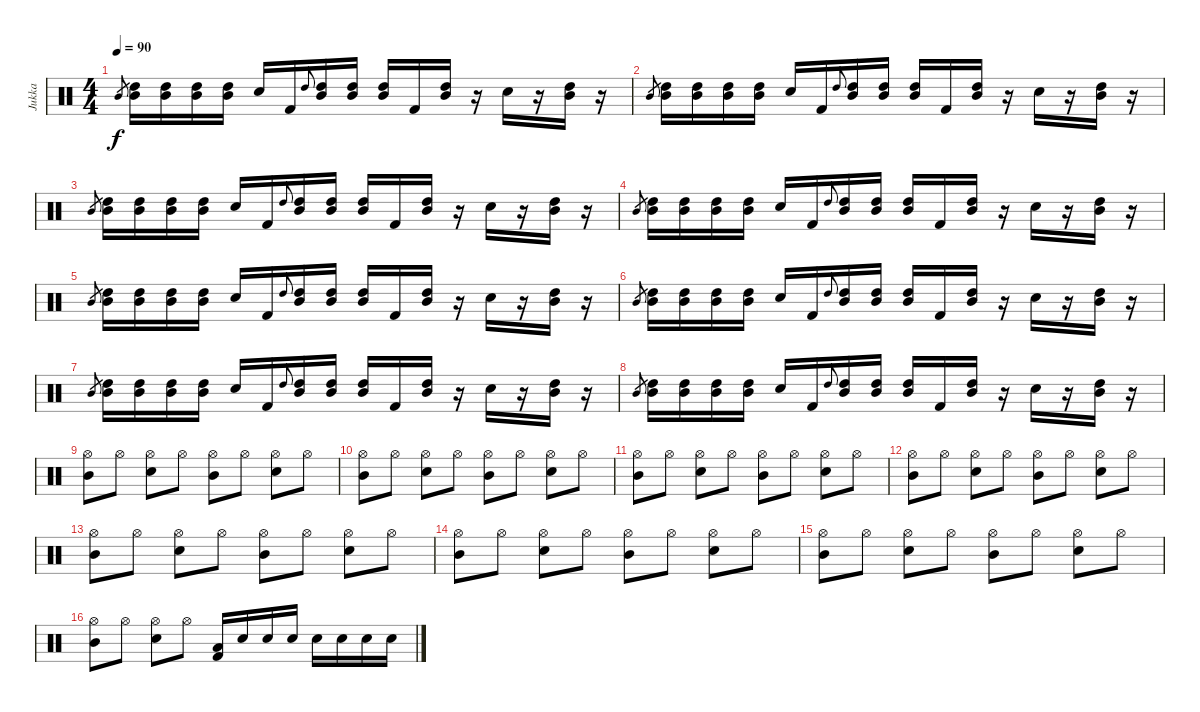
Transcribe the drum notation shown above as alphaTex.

\track ("Jukka" "Jukka") {instrument percussion}
\staff {score}
\articulation defaults
\ts (4 4)
\tempo 90
\clef neutral
\ks c "Mid Tom (hit)".8{gr dy f}
("High Tom (hit)" "Mid Tom (hit)").16 ("Mid Tom (hit)" "High Tom (hit)").16 ("High Tom (hit)" "Mid Tom (hit)").16 ("Mid Tom (hit)" "High Tom (hit)").16 "Snare (hit) 2".16 "Kick (hit) 2".16 "High Tom (hit)".8{gr onbeat} ("Mid Tom (hit)" "High Tom (hit)").16 ("Mid Tom (hit)" "High Tom (hit)").16 ("Mid Tom (hit)" "High Tom (hit)").16 "Kick (hit) 2".16 ("Mid Tom (hit)" "High Tom (hit)").16 r.16 "Snare (hit) 2".16 r.16 ("Mid Tom (hit)" "High Tom (hit)").16 r.16 |
"Mid Tom (hit)".8{gr} ("High Tom (hit)" "Mid Tom (hit)").16 ("Mid Tom (hit)" "High Tom (hit)").16 ("High Tom (hit)" "Mid Tom (hit)").16 ("Mid Tom (hit)" "High Tom (hit)").16 "Snare (hit) 2".16 "Kick (hit) 2".16 "High Tom (hit)".8{gr onbeat} ("Mid Tom (hit)" "High Tom (hit)").16 ("Mid Tom (hit)" "High Tom (hit)").16 ("Mid Tom (hit)" "High Tom (hit)").16 "Kick (hit) 2".16 ("Mid Tom (hit)" "High Tom (hit)").16 r.16 "Snare (hit) 2".16 r.16 ("Mid Tom (hit)" "High Tom (hit)").16 r.16 |
"Mid Tom (hit)".8{gr} ("High Tom (hit)" "Mid Tom (hit)").16 ("Mid Tom (hit)" "High Tom (hit)").16 ("High Tom (hit)" "Mid Tom (hit)").16 ("Mid Tom (hit)" "High Tom (hit)").16 "Snare (hit) 2".16 "Kick (hit) 2".16 "High Tom (hit)".8{gr onbeat} ("Mid Tom (hit)" "High Tom (hit)").16 ("Mid Tom (hit)" "High Tom (hit)").16 ("Mid Tom (hit)" "High Tom (hit)").16 "Kick (hit) 2".16 ("Mid Tom (hit)" "High Tom (hit)").16 r.16 "Snare (hit) 2".16 r.16 ("Mid Tom (hit)" "High Tom (hit)").16 r.16 |
"Mid Tom (hit)".8{gr} ("High Tom (hit)" "Mid Tom (hit)").16 ("Mid Tom (hit)" "High Tom (hit)").16 ("High Tom (hit)" "Mid Tom (hit)").16 ("Mid Tom (hit)" "High Tom (hit)").16 "Snare (hit) 2".16 "Kick (hit) 2".16 "High Tom (hit)".8{gr onbeat} ("Mid Tom (hit)" "High Tom (hit)").16 ("Mid Tom (hit)" "High Tom (hit)").16 ("Mid Tom (hit)" "High Tom (hit)").16 "Kick (hit) 2".16 ("Mid Tom (hit)" "High Tom (hit)").16 r.16 "Snare (hit) 2".16 r.16 ("Mid Tom (hit)" "High Tom (hit)").16 r.16 |
"Mid Tom (hit)".8{gr} ("High Tom (hit)" "Mid Tom (hit)").16 ("Mid Tom (hit)" "High Tom (hit)").16 ("High Tom (hit)" "Mid Tom (hit)").16 ("Mid Tom (hit)" "High Tom (hit)").16 "Snare (hit) 2".16 "Kick (hit) 2".16 "High Tom (hit)".8{gr onbeat} ("Mid Tom (hit)" "High Tom (hit)").16 ("Mid Tom (hit)" "High Tom (hit)").16 ("Mid Tom (hit)" "High Tom (hit)").16 "Kick (hit) 2".16 ("Mid Tom (hit)" "High Tom (hit)").16 r.16 "Snare (hit) 2".16 r.16 ("Mid Tom (hit)" "High Tom (hit)").16 r.16 |
"Mid Tom (hit)".8{gr} ("High Tom (hit)" "Mid Tom (hit)").16 ("Mid Tom (hit)" "High Tom (hit)").16 ("High Tom (hit)" "Mid Tom (hit)").16 ("Mid Tom (hit)" "High Tom (hit)").16 "Snare (hit) 2".16 "Kick (hit) 2".16 "High Tom (hit)".8{gr onbeat} ("Mid Tom (hit)" "High Tom (hit)").16 ("Mid Tom (hit)" "High Tom (hit)").16 ("Mid Tom (hit)" "High Tom (hit)").16 "Kick (hit) 2".16 ("Mid Tom (hit)" "High Tom (hit)").16 r.16 "Snare (hit) 2".16 r.16 ("Mid Tom (hit)" "High Tom (hit)").16 r.16 |
"Mid Tom (hit)".8{gr} ("High Tom (hit)" "Mid Tom (hit)").16 ("Mid Tom (hit)" "High Tom (hit)").16 ("High Tom (hit)" "Mid Tom (hit)").16 ("Mid Tom (hit)" "High Tom (hit)").16 "Snare (hit) 2".16 "Kick (hit) 2".16 "High Tom (hit)".8{gr onbeat} ("Mid Tom (hit)" "High Tom (hit)").16 ("Mid Tom (hit)" "High Tom (hit)").16 ("Mid Tom (hit)" "High Tom (hit)").16 "Kick (hit) 2".16 ("Mid Tom (hit)" "High Tom (hit)").16 r.16 "Snare (hit) 2".16 r.16 ("Mid Tom (hit)" "High Tom (hit)").16 r.16 |
"Mid Tom (hit)".8{gr} ("High Tom (hit)" "Mid Tom (hit)").16 ("Mid Tom (hit)" "High Tom (hit)").16 ("High Tom (hit)" "Mid Tom (hit)").16 ("Mid Tom (hit)" "High Tom (hit)").16 "Snare (hit) 2".16 "Kick (hit) 2".16 "High Tom (hit)".8{gr onbeat} ("Mid Tom (hit)" "High Tom (hit)").16 ("Mid Tom (hit)" "High Tom (hit)").16 ("Mid Tom (hit)" "High Tom (hit)").16 "Kick (hit) 2".16 ("Mid Tom (hit)" "High Tom (hit)").16 r.16 "Snare (hit) 2".16 r.16 ("Mid Tom (hit)" "High Tom (hit)").16 r.16 |
("Mid Tom (hit)" "Hi-Hat (open)").8 "Hi-Hat (open)".8 ("Hi-Hat (open)" "Snare (hit) 2").8 "Hi-Hat (open)".8 ("Hi-Hat (open)" "Mid Tom (hit)").8 "Hi-Hat (open)".8 ("Hi-Hat (open)" "Snare (hit) 2").8 "Hi-Hat (open)".8 |
("Mid Tom (hit)" "Hi-Hat (open)").8 "Hi-Hat (open)".8 ("Hi-Hat (open)" "Snare (hit) 2").8 "Hi-Hat (open)".8 ("Hi-Hat (open)" "Mid Tom (hit)").8 "Hi-Hat (open)".8 ("Hi-Hat (open)" "Snare (hit) 2").8 "Hi-Hat (open)".8 |
("Mid Tom (hit)" "Hi-Hat (open)").8 "Hi-Hat (open)".8 ("Hi-Hat (open)" "Snare (hit) 2").8 "Hi-Hat (open)".8 ("Hi-Hat (open)" "Mid Tom (hit)").8 "Hi-Hat (open)".8 ("Hi-Hat (open)" "Snare (hit) 2").8 "Hi-Hat (open)".8 |
("Mid Tom (hit)" "Hi-Hat (open)").8 "Hi-Hat (open)".8 ("Hi-Hat (open)" "Snare (hit) 2").8 "Hi-Hat (open)".8 ("Hi-Hat (open)" "Mid Tom (hit)").8 "Hi-Hat (open)".8 ("Hi-Hat (open)" "Snare (hit) 2").8 "Hi-Hat (open)".8 |
("Mid Tom (hit)" "Hi-Hat (open)").8 "Hi-Hat (open)".8 ("Hi-Hat (open)" "Snare (hit) 2").8 "Hi-Hat (open)".8 ("Hi-Hat (open)" "Mid Tom (hit)").8 "Hi-Hat (open)".8 ("Hi-Hat (open)" "Snare (hit) 2").8 "Hi-Hat (open)".8 |
("Mid Tom (hit)" "Hi-Hat (open)").8 "Hi-Hat (open)".8 ("Hi-Hat (open)" "Snare (hit) 2").8 "Hi-Hat (open)".8 ("Hi-Hat (open)" "Mid Tom (hit)").8 "Hi-Hat (open)".8 ("Hi-Hat (open)" "Snare (hit) 2").8 "Hi-Hat (open)".8 |
("Mid Tom (hit)" "Hi-Hat (open)").8 "Hi-Hat (open)".8 ("Hi-Hat (open)" "Snare (hit) 2").8 "Hi-Hat (open)".8 ("Hi-Hat (open)" "Mid Tom (hit)").8 "Hi-Hat (open)".8 ("Hi-Hat (open)" "Snare (hit) 2").8 "Hi-Hat (open)".8 |
("Mid Tom (hit)" "Hi-Hat (open)").8 "Hi-Hat (open)".8 ("Hi-Hat (open)" "Snare (hit) 2").8 "Hi-Hat (open)".8 ("Low Floor Tom (hit)" "Kick (hit) 2").16 "Snare (hit) 2".16 "Snare (hit) 2".16 "Snare (hit) 2".16 "Snare (hit) 2".16 "Snare (hit) 2".16 "Snare (hit) 2".16 "Snare (hit) 2".16
